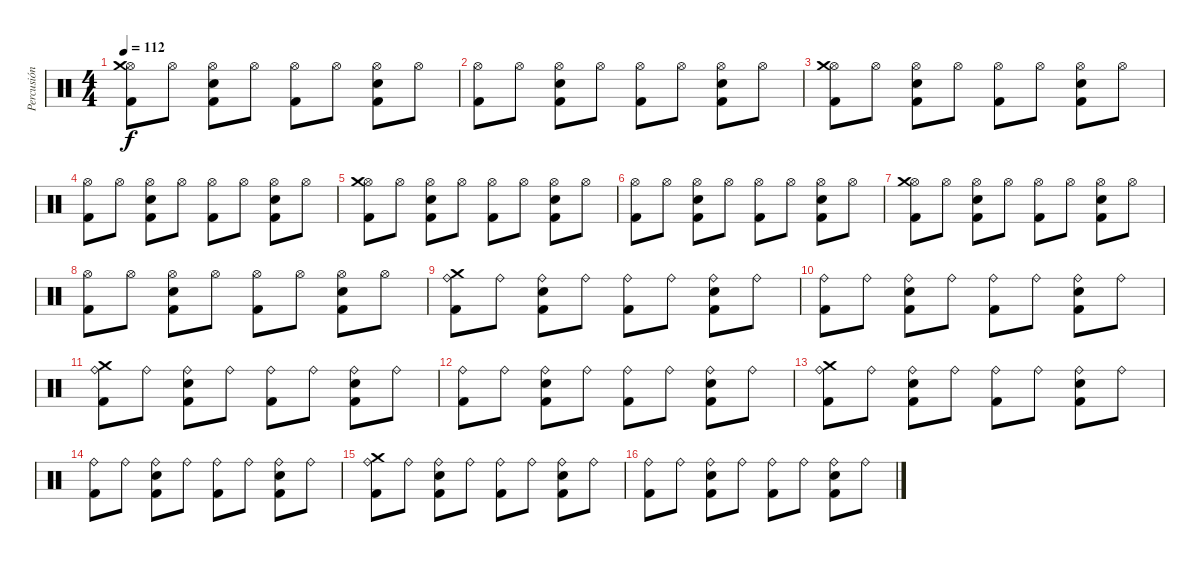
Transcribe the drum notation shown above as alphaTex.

\track ("Percusión" "Percusión") {instrument percussion}
\staff {score}
\articulation defaults
\ts (4 4)
\tempo 112
\clef neutral
\ks c
("Kick (hit) 2" "Hi-Hat (open)" "Crash medium (hit)").8{dy f} "Hi-Hat (open)".8 ("Kick (hit) 2" "Hi-Hat (open)" "Electric Snare (hit)").8 "Hi-Hat (open)".8 ("Kick (hit) 2" "Hi-Hat (open)").8 "Hi-Hat (open)".8 ("Kick (hit) 2" "Hi-Hat (open)" "Electric Snare (hit)").8 "Hi-Hat (open)".8 |
("Kick (hit) 2" "Hi-Hat (open)").8 "Hi-Hat (open)".8 ("Kick (hit) 2" "Hi-Hat (open)" "Electric Snare (hit)").8 "Hi-Hat (open)".8 ("Kick (hit) 2" "Hi-Hat (open)").8 "Hi-Hat (open)".8 ("Kick (hit) 2" "Hi-Hat (open)" "Electric Snare (hit)").8 "Hi-Hat (open)".8 |
("Kick (hit) 2" "Hi-Hat (open)" "Crash medium (hit)").8 "Hi-Hat (open)".8 ("Kick (hit) 2" "Hi-Hat (open)" "Electric Snare (hit)").8 "Hi-Hat (open)".8 ("Kick (hit) 2" "Hi-Hat (open)").8 "Hi-Hat (open)".8 ("Kick (hit) 2" "Hi-Hat (open)" "Electric Snare (hit)").8 "Hi-Hat (open)".8 |
("Kick (hit) 2" "Hi-Hat (open)").8 "Hi-Hat (open)".8 ("Kick (hit) 2" "Hi-Hat (open)" "Electric Snare (hit)").8 "Hi-Hat (open)".8 ("Kick (hit) 2" "Hi-Hat (open)").8 "Hi-Hat (open)".8 ("Kick (hit) 2" "Hi-Hat (open)" "Electric Snare (hit)").8 "Hi-Hat (open)".8 |
("Kick (hit) 2" "Hi-Hat (open)" "Crash medium (hit)").8 "Hi-Hat (open)".8 ("Kick (hit) 2" "Hi-Hat (open)" "Electric Snare (hit)").8 "Hi-Hat (open)".8 ("Kick (hit) 2" "Hi-Hat (open)").8 "Hi-Hat (open)".8 ("Kick (hit) 2" "Hi-Hat (open)" "Electric Snare (hit)").8 "Hi-Hat (open)".8 |
("Kick (hit) 2" "Hi-Hat (open)").8 "Hi-Hat (open)".8 ("Kick (hit) 2" "Hi-Hat (open)" "Electric Snare (hit)").8 "Hi-Hat (open)".8 ("Kick (hit) 2" "Hi-Hat (open)").8 "Hi-Hat (open)".8 ("Kick (hit) 2" "Hi-Hat (open)" "Electric Snare (hit)").8 "Hi-Hat (open)".8 |
("Kick (hit) 2" "Hi-Hat (open)" "Crash medium (hit)").8 "Hi-Hat (open)".8 ("Kick (hit) 2" "Hi-Hat (open)" "Electric Snare (hit)").8 "Hi-Hat (open)".8 ("Kick (hit) 2" "Hi-Hat (open)").8 "Hi-Hat (open)".8 ("Kick (hit) 2" "Hi-Hat (open)" "Electric Snare (hit)").8 "Hi-Hat (open)".8 |
("Kick (hit) 2" "Hi-Hat (open)").8 "Hi-Hat (open)".8 ("Kick (hit) 2" "Hi-Hat (open)" "Electric Snare (hit)").8 "Hi-Hat (open)".8 ("Kick (hit) 2" "Hi-Hat (open)").8 "Hi-Hat (open)".8 ("Kick (hit) 2" "Hi-Hat (open)" "Electric Snare (hit)").8 "Hi-Hat (open)".8 |
("Kick (hit) 2" "Ride (bell)" "Crash medium (hit)").8 "Ride (bell)".8 ("Kick (hit) 2" "Ride (bell)" "Electric Snare (hit)").8 "Ride (bell)".8 ("Kick (hit) 2" "Ride (bell)").8 "Ride (bell)".8 ("Kick (hit) 2" "Ride (bell)" "Electric Snare (hit)").8 "Ride (bell)".8 |
("Kick (hit) 2" "Ride (bell)").8 "Ride (bell)".8 ("Kick (hit) 2" "Ride (bell)" "Electric Snare (hit)").8 "Ride (bell)".8 ("Kick (hit) 2" "Ride (bell)").8 "Ride (bell)".8 ("Kick (hit) 2" "Ride (bell)" "Electric Snare (hit)").8 "Ride (bell)".8 |
("Kick (hit) 2" "Ride (bell)" "Crash medium (hit)").8 "Ride (bell)".8 ("Kick (hit) 2" "Ride (bell)" "Electric Snare (hit)").8 "Ride (bell)".8 ("Kick (hit) 2" "Ride (bell)").8 "Ride (bell)".8 ("Kick (hit) 2" "Ride (bell)" "Electric Snare (hit)").8 "Ride (bell)".8 |
("Kick (hit) 2" "Ride (bell)").8 "Ride (bell)".8 ("Kick (hit) 2" "Ride (bell)" "Electric Snare (hit)").8 "Ride (bell)".8 ("Kick (hit) 2" "Ride (bell)").8 "Ride (bell)".8 ("Kick (hit) 2" "Ride (bell)" "Electric Snare (hit)").8 "Ride (bell)".8 |
("Kick (hit) 2" "Ride (bell)" "Crash medium (hit)").8 "Ride (bell)".8 ("Kick (hit) 2" "Ride (bell)" "Electric Snare (hit)").8 "Ride (bell)".8 ("Kick (hit) 2" "Ride (bell)").8 "Ride (bell)".8 ("Kick (hit) 2" "Ride (bell)" "Electric Snare (hit)").8 "Ride (bell)".8 |
("Kick (hit) 2" "Ride (bell)").8 "Ride (bell)".8 ("Kick (hit) 2" "Ride (bell)" "Electric Snare (hit)").8 "Ride (bell)".8 ("Kick (hit) 2" "Ride (bell)").8 "Ride (bell)".8 ("Kick (hit) 2" "Ride (bell)" "Electric Snare (hit)").8 "Ride (bell)".8 |
("Kick (hit) 2" "Ride (bell)" "Crash medium (hit)").8 "Ride (bell)".8 ("Kick (hit) 2" "Ride (bell)" "Electric Snare (hit)").8 "Ride (bell)".8 ("Kick (hit) 2" "Ride (bell)").8 "Ride (bell)".8 ("Kick (hit) 2" "Ride (bell)" "Electric Snare (hit)").8 "Ride (bell)".8 |
("Kick (hit) 2" "Ride (bell)").8 "Ride (bell)".8 ("Kick (hit) 2" "Ride (bell)" "Electric Snare (hit)").8 "Ride (bell)".8 ("Kick (hit) 2" "Ride (bell)").8 "Ride (bell)".8 ("Kick (hit) 2" "Ride (bell)" "Electric Snare (hit)").8 "Ride (bell)".8
